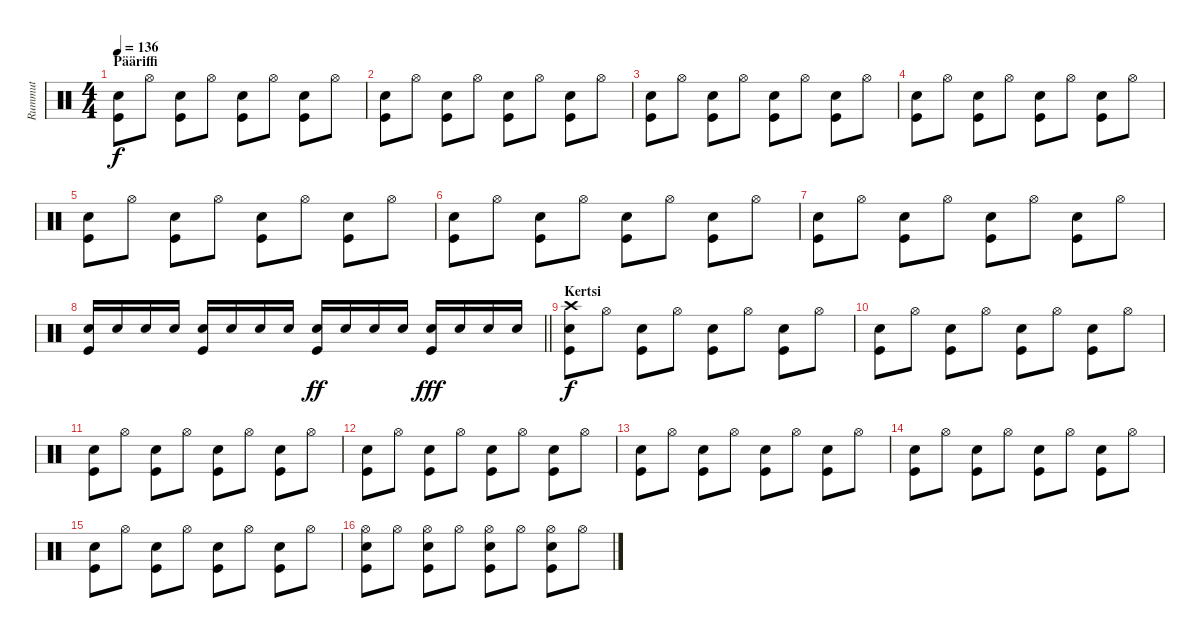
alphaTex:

\track ("Rummut" "Rummut") {instrument percussion}
\staff {score}
\articulation defaults
\ts (4 4)
\section ("" "Pääriffi")
\tempo 136
\clef neutral
\ks c
("Electric Snare (hit)" "Kick (hit)").8{dy f} "Hi-Hat (open)".8 ("Electric Snare (hit)" "Kick (hit)").8 "Hi-Hat (open)".8 ("Electric Snare (hit)" "Kick (hit)").8 "Hi-Hat (open)".8 ("Electric Snare (hit)" "Kick (hit)").8 "Hi-Hat (open)".8 |
("Electric Snare (hit)" "Kick (hit)").8 "Hi-Hat (open)".8 ("Electric Snare (hit)" "Kick (hit)").8 "Hi-Hat (open)".8 ("Electric Snare (hit)" "Kick (hit)").8 "Hi-Hat (open)".8 ("Electric Snare (hit)" "Kick (hit)").8 "Hi-Hat (open)".8 |
("Electric Snare (hit)" "Kick (hit)").8 "Hi-Hat (open)".8 ("Electric Snare (hit)" "Kick (hit)").8 "Hi-Hat (open)".8 ("Electric Snare (hit)" "Kick (hit)").8 "Hi-Hat (open)".8 ("Electric Snare (hit)" "Kick (hit)").8 "Hi-Hat (open)".8 |
("Electric Snare (hit)" "Kick (hit)").8 "Hi-Hat (open)".8 ("Electric Snare (hit)" "Kick (hit)").8 "Hi-Hat (open)".8 ("Electric Snare (hit)" "Kick (hit)").8 "Hi-Hat (open)".8 ("Electric Snare (hit)" "Kick (hit)").8 "Hi-Hat (open)".8 |
("Electric Snare (hit)" "Kick (hit)").8 "Hi-Hat (open)".8 ("Electric Snare (hit)" "Kick (hit)").8 "Hi-Hat (open)".8 ("Electric Snare (hit)" "Kick (hit)").8 "Hi-Hat (open)".8 ("Electric Snare (hit)" "Kick (hit)").8 "Hi-Hat (open)".8 |
("Electric Snare (hit)" "Kick (hit)").8 "Hi-Hat (open)".8 ("Electric Snare (hit)" "Kick (hit)").8 "Hi-Hat (open)".8 ("Electric Snare (hit)" "Kick (hit)").8 "Hi-Hat (open)".8 ("Electric Snare (hit)" "Kick (hit)").8 "Hi-Hat (open)".8 |
("Electric Snare (hit)" "Kick (hit)").8 "Hi-Hat (open)".8 ("Electric Snare (hit)" "Kick (hit)").8 "Hi-Hat (open)".8 ("Electric Snare (hit)" "Kick (hit)").8 "Hi-Hat (open)".8 ("Electric Snare (hit)" "Kick (hit)").8 "Hi-Hat (open)".8 |
\barLineRight lightlight
("Electric Snare (hit)" "Kick (hit)").16 "Electric Snare (hit)".16 "Electric Snare (hit)".16 "Electric Snare (hit)".16 ("Electric Snare (hit)" "Kick (hit)").16 "Electric Snare (hit)".16 "Electric Snare (hit)".16 "Electric Snare (hit)".16 ("Electric Snare (hit)" "Kick (hit)").16{dy ff} "Electric Snare (hit)".16 "Electric Snare (hit)".16 "Electric Snare (hit)".16 ("Electric Snare (hit)" "Kick (hit)").16{dy fff} "Electric Snare (hit)".16 "Electric Snare (hit)".16 "Electric Snare (hit)".16 |
\section ("" "Kertsi")
("Crash high (hit)" "Electric Snare (hit)" "Kick (hit)").8{dy f} "Hi-Hat (open)".8 ("Electric Snare (hit)" "Kick (hit)").8 "Hi-Hat (open)".8 ("Electric Snare (hit)" "Kick (hit)").8 "Hi-Hat (open)".8 ("Electric Snare (hit)" "Kick (hit)").8 "Hi-Hat (open)".8 |
("Electric Snare (hit)" "Kick (hit)").8 "Hi-Hat (open)".8 ("Electric Snare (hit)" "Kick (hit)").8 "Hi-Hat (open)".8 ("Electric Snare (hit)" "Kick (hit)").8 "Hi-Hat (open)".8 ("Electric Snare (hit)" "Kick (hit)").8 "Hi-Hat (open)".8 |
("Electric Snare (hit)" "Kick (hit)").8 "Hi-Hat (open)".8 ("Electric Snare (hit)" "Kick (hit)").8 "Hi-Hat (open)".8 ("Electric Snare (hit)" "Kick (hit)").8 "Hi-Hat (open)".8 ("Electric Snare (hit)" "Kick (hit)").8 "Hi-Hat (open)".8 |
("Electric Snare (hit)" "Kick (hit)").8 "Hi-Hat (open)".8 ("Electric Snare (hit)" "Kick (hit)").8 "Hi-Hat (open)".8 ("Electric Snare (hit)" "Kick (hit)").8 "Hi-Hat (open)".8 ("Electric Snare (hit)" "Kick (hit)").8 "Hi-Hat (open)".8 |
("Electric Snare (hit)" "Kick (hit)").8 "Hi-Hat (open)".8 ("Electric Snare (hit)" "Kick (hit)").8 "Hi-Hat (open)".8 ("Electric Snare (hit)" "Kick (hit)").8 "Hi-Hat (open)".8 ("Electric Snare (hit)" "Kick (hit)").8 "Hi-Hat (open)".8 |
("Electric Snare (hit)" "Kick (hit)").8 "Hi-Hat (open)".8 ("Electric Snare (hit)" "Kick (hit)").8 "Hi-Hat (open)".8 ("Electric Snare (hit)" "Kick (hit)").8 "Hi-Hat (open)".8 ("Electric Snare (hit)" "Kick (hit)").8 "Hi-Hat (open)".8 |
("Electric Snare (hit)" "Kick (hit)").8 "Hi-Hat (open)".8 ("Electric Snare (hit)" "Kick (hit)").8 "Hi-Hat (open)".8 ("Electric Snare (hit)" "Kick (hit)").8 "Hi-Hat (open)".8 ("Electric Snare (hit)" "Kick (hit)").8 "Hi-Hat (open)".8 |
("Hi-Hat (open)" "Electric Snare (hit)" "Kick (hit)").8 "Hi-Hat (open)".8 ("Hi-Hat (open)" "Electric Snare (hit)" "Kick (hit)").8 "Hi-Hat (open)".8 ("Hi-Hat (open)" "Electric Snare (hit)" "Kick (hit)").8 "Hi-Hat (open)".8 ("Hi-Hat (open)" "Electric Snare (hit)" "Kick (hit)").8 "Hi-Hat (open)".8
